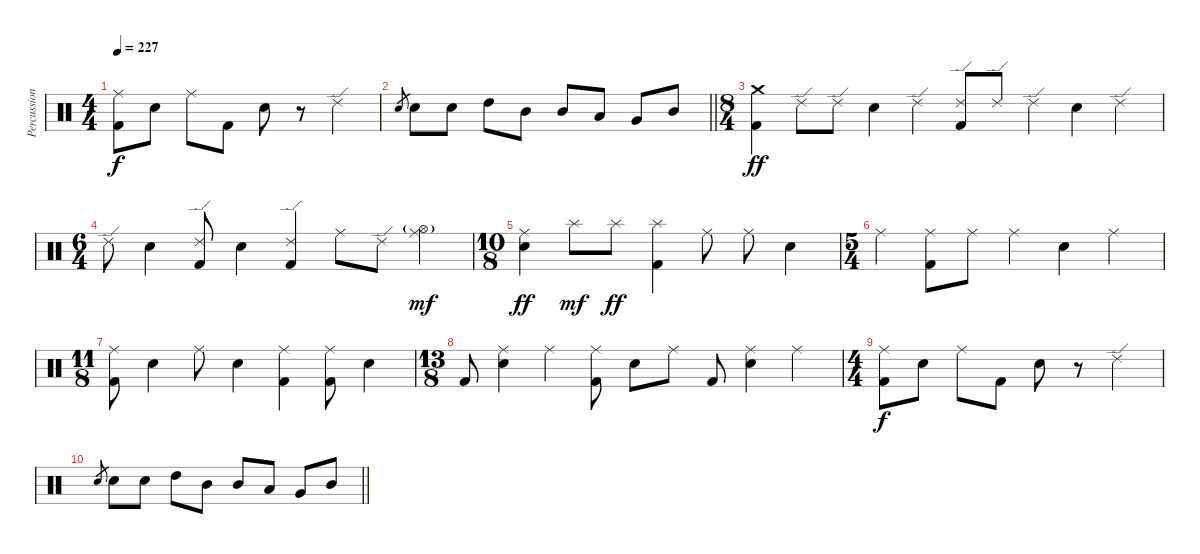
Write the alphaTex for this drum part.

\track ("Percussion" "Percussion") {instrument percussion}
\staff {score}
\articulation defaults
\ts (4 4)
\tempo 227
\clef neutral
\ks c
("Ride (middle)" "Kick (hit) 2").8{dy f} "Electric Snare (hit)".8 "Ride (middle)".8 "Kick (hit) 2".8 "Electric Snare (hit)".8 r.8 "Ride (edge) 2".4 |
\barLineRight lightlight "Electric Snare (hit)".8{gr} "Electric Snare (hit)".8 "Electric Snare (hit)".8 "High Tom (hit)".8 "Mid Tom (hit)".8 "Mid Tom (hit)".8 "Low Tom (hit)".8 "Very Low Tom (hit)".8 "Mid Tom (hit)".8
|
\ts (8 4)
\section ("" "")
("Crash medium (hit)" "Kick (hit) 2").4{dy ff} "Ride (edge) 2".8 "Ride (edge) 2".8 "Electric Snare (hit)".4 "Ride (edge) 2".4 ("Ride (edge) 2" "Kick (hit) 2").8 "Ride (edge) 2".8 "Ride (edge) 2".4 "Electric Snare (hit)".4 "Ride (edge) 2".4 |
\ts (6 4)
"Ride (edge) 2".8 "Electric Snare (hit)".4 ("Ride (edge) 2" "Kick (hit) 2").8 "Electric Snare (hit)".4 ("Ride (edge) 2" "Kick (hit) 2").4 "Ride (middle)".8 "Ride (edge) 2".8 ("Ride (middle)" "Hi-Hat (open)"{g}).4{dy mf} |
\ts (10 8)
("Ride (middle)" "Electric Snare (hit)").4{dy ff} "Splash (hit)".8{dy mf} "Splash (hit)".8{dy ff} ("Splash (hit)" "Kick (hit) 2").4 "Ride (middle)".8 "Ride (middle)".8 "Electric Snare (hit)".4 |
\ts (5 4)
"Ride (middle)".4 ("Ride (middle)" "Kick (hit) 2").8 "Ride (middle)".8 "Ride (middle)".4 "Electric Snare (hit)".4 "Ride (middle)".4 |
\ts (11 8)
("Ride (middle)" "Kick (hit) 2").8 "Electric Snare (hit)".4 "Ride (middle)".8 "Electric Snare (hit)".4 ("Ride (middle)" "Kick (hit) 2").4 ("Ride (middle)" "Kick (hit) 2").8 "Electric Snare (hit)".4 |
\ts (13 8)
"Kick (hit) 2".8 ("Ride (middle)" "Electric Snare (hit)").4 "Ride (middle)".4 ("Ride (middle)" "Kick (hit) 2").8 "Electric Snare (hit)".8 "Ride (middle)".8 "Kick (hit) 2".8 ("Ride (middle)" "Electric Snare (hit)").4 "Ride (middle)".4 |
\ts (4 4)
("Ride (middle)" "Kick (hit) 2").8{dy f} "Electric Snare (hit)".8 "Ride (middle)".8 "Kick (hit) 2".8 "Electric Snare (hit)".8 r.8 "Ride (edge) 2".4 |
\barLineRight lightlight "Electric Snare (hit)".8{gr} "Electric Snare (hit)".8 "Electric Snare (hit)".8 "High Tom (hit)".8 "Mid Tom (hit)".8 "Mid Tom (hit)".8 "Low Tom (hit)".8 "Very Low Tom (hit)".8 "Mid Tom (hit)".8
